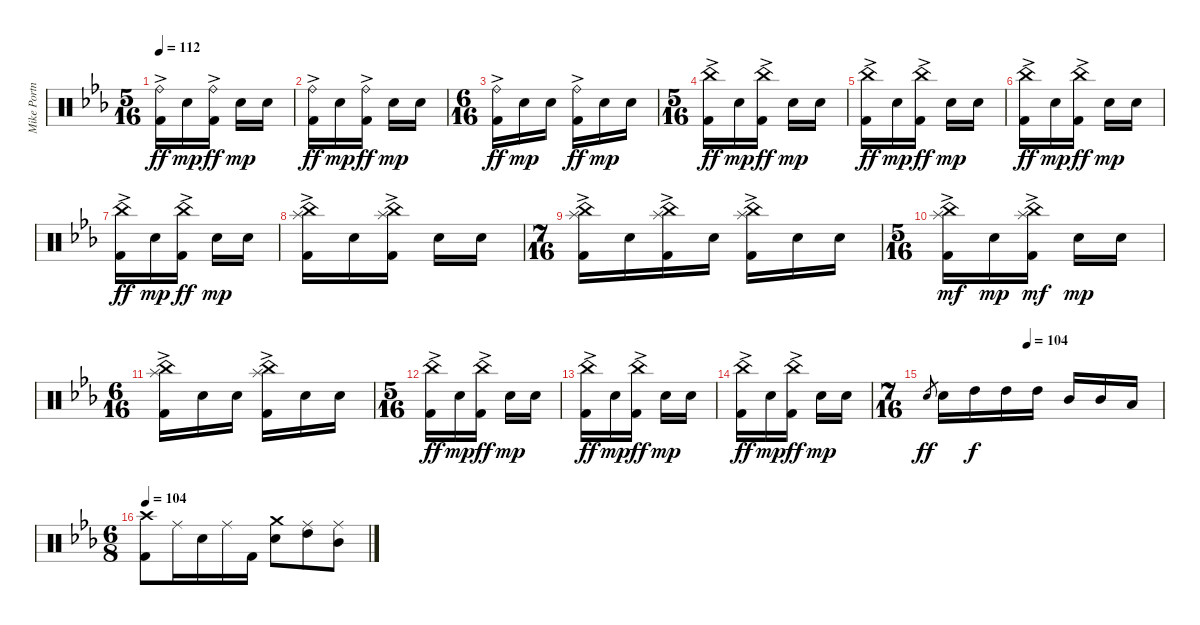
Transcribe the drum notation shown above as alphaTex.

\track ("Mike Portnoy" "Mike Portn") {instrument percussion}
\staff {score}
\articulation defaults
\ts (5 16)
\tempo 112
\clef neutral
\ks eb
("Ride (bell)"{ac} "Kick (hit) 2").16{dy ff} "Electric Snare (hit)".16{dy mp} ("Ride (bell)"{ac} "Kick (hit) 2").16{dy ff} "Electric Snare (hit)".16{dy mp} "Electric Snare (hit)".16 |
("Ride (bell)"{ac} "Kick (hit) 2").16{dy ff} "Electric Snare (hit)".16{dy mp} ("Ride (bell)"{ac} "Kick (hit) 2").16{dy ff} "Electric Snare (hit)".16{dy mp} "Electric Snare (hit)".16 |
\ts (6 16)
("Ride (bell)"{ac} "Kick (hit) 2").16{dy ff} "Electric Snare (hit)".16{dy mp} "Electric Snare (hit)".16 ("Ride (bell)"{ac} "Kick (hit) 2").16{dy ff} "Electric Snare (hit)".16{dy mp} "Electric Snare (hit)".16 |
\ts (5 16)
("China (hit)"{ac} "Kick (hit) 2").16{dy ff} "Electric Snare (hit)".16{dy mp} ("China (hit)"{ac} "Kick (hit) 2").16{dy ff} "Electric Snare (hit)".16{dy mp} "Electric Snare (hit)".16 |
("China (hit)"{ac} "Kick (hit) 2").16{dy ff} "Electric Snare (hit)".16{dy mp} ("China (hit)"{ac} "Kick (hit) 2").16{dy ff} "Electric Snare (hit)".16{dy mp} "Electric Snare (hit)".16 |
("China (hit)"{ac} "Kick (hit) 2").16{dy ff} "Electric Snare (hit)".16{dy mp} ("China (hit)"{ac} "Kick (hit) 2").16{dy ff} "Electric Snare (hit)".16{dy mp} "Electric Snare (hit)".16 |
("China (hit)"{ac} "Kick (hit) 2").16{dy ff} "Electric Snare (hit)".16{dy mp} ("China (hit)"{ac} "Kick (hit) 2").16{dy ff} "Electric Snare (hit)".16{dy mp} "Electric Snare (hit)".16 |
("China (hit)"{ac} "Splash (hit)" "Kick (hit) 2").16 "Electric Snare (hit)".16 ("China (hit)"{ac} "Splash (hit)" "Kick (hit) 2").16 "Electric Snare (hit)".16 "Electric Snare (hit)".16 |
\ts (7 16)
("China (hit)" "Splash (hit)"{ac} "Kick (hit) 2").16 "Electric Snare (hit)".16 ("China (hit)" "Splash (hit)"{ac} "Kick (hit) 2").16 "Electric Snare (hit)".16 ("China (hit)" "Splash (hit)"{ac} "Kick (hit) 2").16 "Electric Snare (hit)".16 "Electric Snare (hit)".16 |
\ts (5 16)
("China (hit)"{ac} "Splash (hit)" "Kick (hit) 2").16{dy mf} "Electric Snare (hit)".16{dy mp} ("China (hit)"{ac} "Splash (hit)" "Kick (hit) 2").16{dy mf} "Electric Snare (hit)".16{dy mp} "Electric Snare (hit)".16 |
\ts (6 16)
("China (hit)" "Splash (hit)"{ac} "Kick (hit) 2").16 "Electric Snare (hit)".16 "Electric Snare (hit)".16 ("China (hit)" "Splash (hit)"{ac} "Kick (hit) 2").16 "Electric Snare (hit)".16 "Electric Snare (hit)".16 |
\ts (5 16)
("China (hit)"{ac} "Kick (hit) 2").16{dy ff} "Electric Snare (hit)".16{dy mp} ("China (hit)"{ac} "Kick (hit) 2").16{dy ff} "Electric Snare (hit)".16{dy mp} "Electric Snare (hit)".16 |
("China (hit)"{ac} "Kick (hit) 2").16{dy ff} "Electric Snare (hit)".16{dy mp} ("China (hit)"{ac} "Kick (hit) 2").16{dy ff} "Electric Snare (hit)".16{dy mp} "Electric Snare (hit)".16 |
("China (hit)"{ac} "Kick (hit) 2").16{dy ff} "Electric Snare (hit)".16{dy mp} ("China (hit)"{ac} "Kick (hit) 2").16{dy ff} "Electric Snare (hit)".16{dy mp} "Electric Snare (hit)".16 |
\ts (7 16)
\tempo (104 0.42857142857142855)
"Electric Snare (hit)"{h}.8{gr dy ff} "Electric Snare (hit)".16 "High Tom (hit)".16{dy f} "High Tom (hit)".16 "High Tom (hit)".16 "Mid Tom (hit)".16 "Mid Tom (hit)".16 "Low Tom (hit)".16 |
\ts (6 8)
\tempo 104
("Crash high (hit)" "Kick (hit) 2").8 "Ride (middle)".16 "Electric Snare (hit)".16 "Ride (middle)".16 "Kick (hit) 2".16 ("Crash medium (hit)" "Electric Snare (hit)").8 ("Ride (middle)" "High Tom (hit)").8 ("Ride (middle)" "Mid Tom (hit)").8
